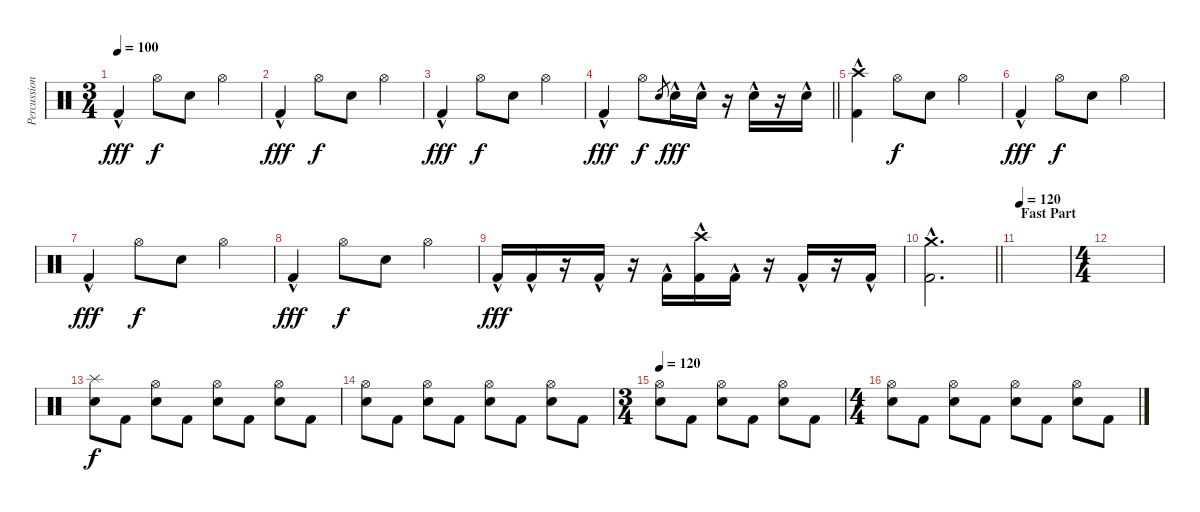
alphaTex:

\track ("Percussion" "Percussion") {instrument percussion}
\staff {score}
\articulation defaults
\ts (3 4)
\tempo 100
\clef neutral
\ks c "Kick (hit) 2"{hac}.4{dy fff} "Hi-Hat (open)".8{dy f} "Snare (hit) 2".8 "Hi-Hat (open)".4
|
"Kick (hit) 2"{hac}.4{dy fff} "Hi-Hat (open)".8{dy f} "Snare (hit) 2".8 "Hi-Hat (open)".4 |
"Kick (hit) 2"{hac}.4{dy fff} "Hi-Hat (open)".8{dy f} "Snare (hit) 2".8 "Hi-Hat (open)".4 |
\barLineRight lightlight "Kick (hit) 2"{hac}.4{dy fff} "Hi-Hat (open)".8{dy f} "Snare (hit) 2".8{gr} "Snare (hit) 2"{hac}.16{dy fff} "Snare (hit) 2"{hac}.16
r.16 "Snare (hit) 2"{hac}.16 r.16 "Snare (hit) 2"{hac}.16 |
("Crash high (hit)" "Kick (hit) 2"{hac}).4 "Hi-Hat (open)".8{dy f} "Snare (hit) 2".8 "Hi-Hat (open)".4 |
"Kick (hit) 2"{hac}.4{dy fff} "Hi-Hat (open)".8{dy f} "Snare (hit) 2".8 "Hi-Hat (open)".4 |
"Kick (hit) 2"{hac}.4{dy fff} "Hi-Hat (open)".8{dy f} "Snare (hit) 2".8 "Hi-Hat (open)".4 |
"Kick (hit) 2"{hac}.4{dy fff} "Hi-Hat (open)".8{dy f} "Snare (hit) 2".8 "Hi-Hat (open)".4 |
"Kick (hit) 2"{hac}.16{dy fff} "Kick (hit) 2"{hac}.16 r.16 "Kick (hit) 2"{hac}.16 r.16 "Kick (hit) 2"{hac}.16 ("Crash high (hit)" "Kick (hit) 2"{hac}).16 "Kick (hit) 2"{hac}.16 r.16 "Kick (hit) 2"{hac}.16 r.16 "Kick (hit) 2"{hac}.16 |
\barLineRight lightlight
("Crash medium (hit)" "Kick (hit) 2"{hac}).2{d} |
\section ("" "Fast Part")
\tempo 120
|
\ts (4 4)
|
("Splash (hit)" "Snare (hit) 2").8{dy f} "Kick (hit) 2".8 ("Hi-Hat (open)" "Snare (hit) 2").8 "Kick (hit) 2".8 ("Hi-Hat (open)" "Snare (hit) 2").8 "Kick (hit) 2".8 ("Hi-Hat (open)" "Snare (hit) 2").8 "Kick (hit) 2".8 |
("Hi-Hat (open)" "Snare (hit) 2").8 "Kick (hit) 2".8 ("Hi-Hat (open)" "Snare (hit) 2").8 "Kick (hit) 2".8 ("Hi-Hat (open)" "Snare (hit) 2").8 "Kick (hit) 2".8 ("Hi-Hat (open)" "Snare (hit) 2").8 "Kick (hit) 2".8 |
\ts (3 4)
\tempo 120
("Hi-Hat (open)" "Snare (hit) 2").8 "Kick (hit) 2".8 ("Hi-Hat (open)" "Snare (hit) 2").8 "Kick (hit) 2".8 ("Hi-Hat (open)" "Snare (hit) 2").8 "Kick (hit) 2".8 |
\ts (4 4)
("Hi-Hat (open)" "Snare (hit) 2").8 "Kick (hit) 2".8 ("Hi-Hat (open)" "Snare (hit) 2").8 "Kick (hit) 2".8 ("Hi-Hat (open)" "Snare (hit) 2").8 "Kick (hit) 2".8 ("Hi-Hat (open)" "Snare (hit) 2").8 "Kick (hit) 2".8
